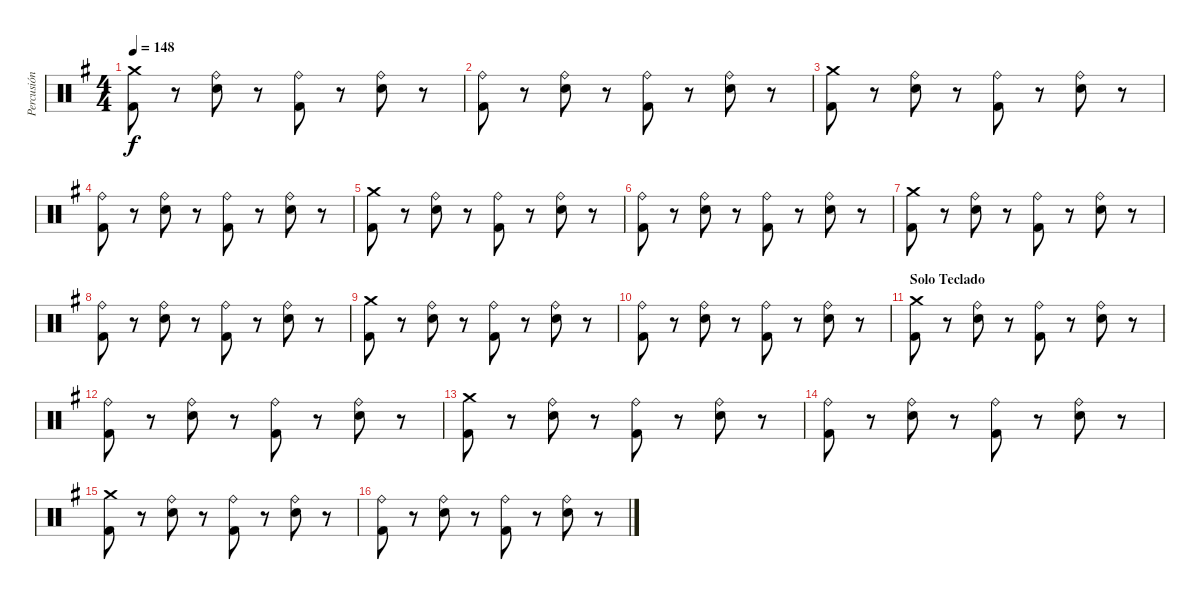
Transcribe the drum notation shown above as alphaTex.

\track ("Percusión" "Percusión") {instrument percussion}
\staff {score}
\articulation defaults
\ts (4 4)
\tempo 148
\clef neutral
\ks g
("Crash medium (hit)" "Kick (hit) 2").8{dy f} r.8 ("Ride (bell)" "Snare (hit) 2").8 r.8 ("Ride (bell)" "Kick (hit) 2").8 r.8 ("Ride (bell)" "Snare (hit) 2").8 r.8 |
("Ride (bell)" "Kick (hit) 2").8 r.8 ("Ride (bell)" "Snare (hit) 2").8 r.8 ("Ride (bell)" "Kick (hit) 2").8 r.8 ("Ride (bell)" "Snare (hit) 2").8 r.8 |
("Crash medium (hit)" "Kick (hit) 2").8 r.8 ("Ride (bell)" "Snare (hit) 2").8 r.8 ("Ride (bell)" "Kick (hit) 2").8 r.8 ("Ride (bell)" "Snare (hit) 2").8 r.8 |
("Ride (bell)" "Kick (hit) 2").8 r.8 ("Ride (bell)" "Snare (hit) 2").8 r.8 ("Ride (bell)" "Kick (hit) 2").8 r.8 ("Ride (bell)" "Snare (hit) 2").8 r.8 |
("Crash medium (hit)" "Kick (hit) 2").8 r.8 ("Ride (bell)" "Snare (hit) 2").8 r.8 ("Ride (bell)" "Kick (hit) 2").8 r.8 ("Ride (bell)" "Snare (hit) 2").8 r.8 |
("Ride (bell)" "Kick (hit) 2").8 r.8 ("Ride (bell)" "Snare (hit) 2").8 r.8 ("Ride (bell)" "Kick (hit) 2").8 r.8 ("Ride (bell)" "Snare (hit) 2").8 r.8 |
("Crash medium (hit)" "Kick (hit) 2").8 r.8 ("Ride (bell)" "Snare (hit) 2").8 r.8 ("Ride (bell)" "Kick (hit) 2").8 r.8 ("Ride (bell)" "Snare (hit) 2").8 r.8 |
("Ride (bell)" "Kick (hit) 2").8 r.8 ("Ride (bell)" "Snare (hit) 2").8 r.8 ("Ride (bell)" "Kick (hit) 2").8 r.8 ("Ride (bell)" "Snare (hit) 2").8 r.8 |
("Crash medium (hit)" "Kick (hit) 2").8 r.8 ("Ride (bell)" "Snare (hit) 2").8 r.8 ("Ride (bell)" "Kick (hit) 2").8 r.8 ("Ride (bell)" "Snare (hit) 2").8 r.8 |
("Ride (bell)" "Kick (hit) 2").8 r.8 ("Ride (bell)" "Snare (hit) 2").8 r.8 ("Ride (bell)" "Kick (hit) 2").8 r.8 ("Ride (bell)" "Snare (hit) 2").8 r.8 |
\section ("" "Solo Teclado")
("Crash medium (hit)" "Kick (hit) 2").8 r.8 ("Ride (bell)" "Snare (hit) 2").8 r.8 ("Ride (bell)" "Kick (hit) 2").8 r.8 ("Ride (bell)" "Snare (hit) 2").8 r.8 |
("Ride (bell)" "Kick (hit) 2").8 r.8 ("Ride (bell)" "Snare (hit) 2").8 r.8 ("Ride (bell)" "Kick (hit) 2").8 r.8 ("Ride (bell)" "Snare (hit) 2").8 r.8 |
("Crash medium (hit)" "Kick (hit) 2").8 r.8 ("Ride (bell)" "Snare (hit) 2").8 r.8 ("Ride (bell)" "Kick (hit) 2").8 r.8 ("Ride (bell)" "Snare (hit) 2").8 r.8 |
("Ride (bell)" "Kick (hit) 2").8 r.8 ("Ride (bell)" "Snare (hit) 2").8 r.8 ("Ride (bell)" "Kick (hit) 2").8 r.8 ("Ride (bell)" "Snare (hit) 2").8 r.8 |
("Crash medium (hit)" "Kick (hit) 2").8 r.8 ("Ride (bell)" "Snare (hit) 2").8 r.8 ("Ride (bell)" "Kick (hit) 2").8 r.8 ("Ride (bell)" "Snare (hit) 2").8 r.8 |
("Ride (bell)" "Kick (hit) 2").8 r.8 ("Ride (bell)" "Snare (hit) 2").8 r.8 ("Ride (bell)" "Kick (hit) 2").8 r.8 ("Ride (bell)" "Snare (hit) 2").8 r.8
